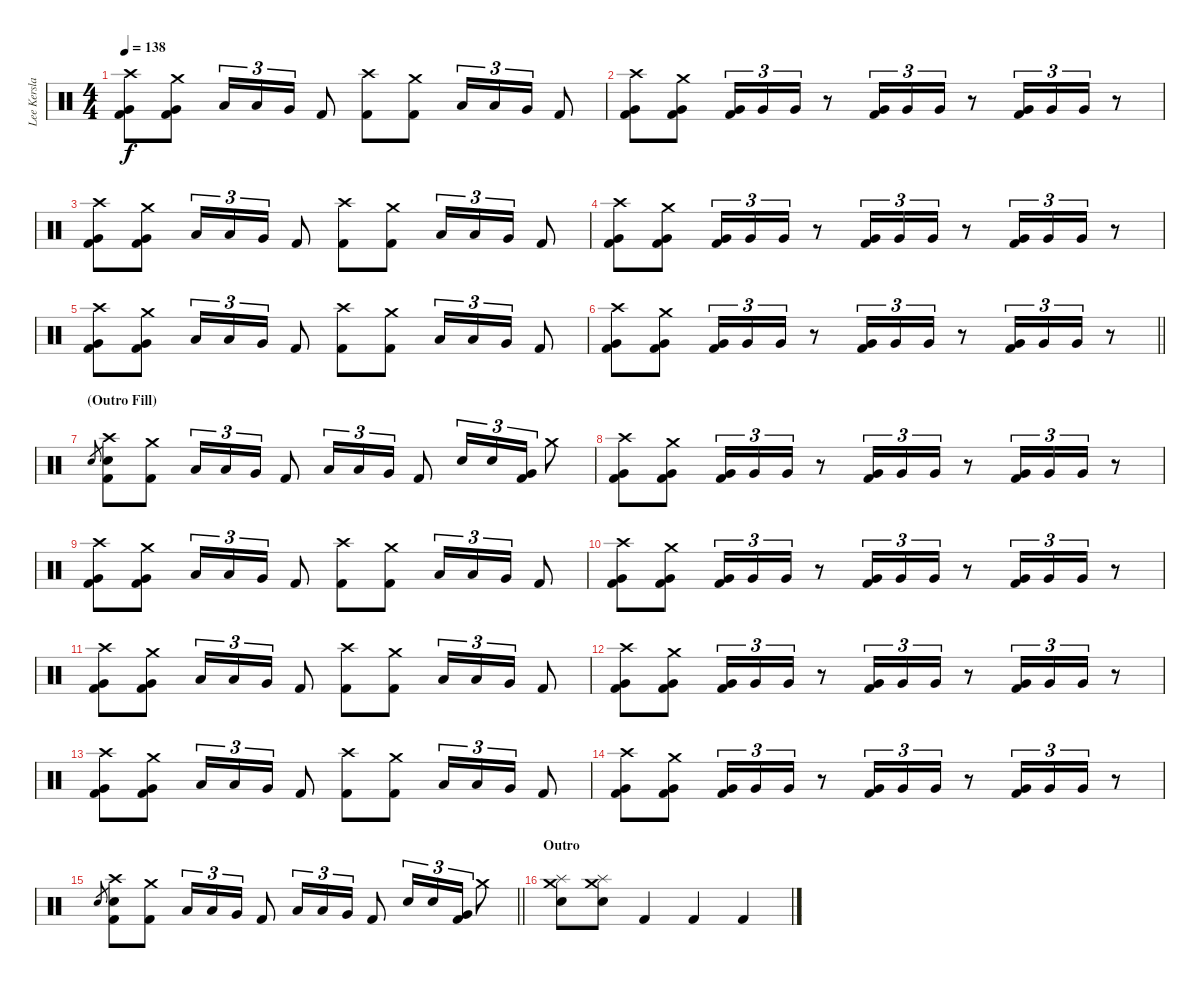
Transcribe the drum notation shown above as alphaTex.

\track ("Lee Kerslake" "Lee Kersla") {instrument percussion}
\staff {score}
\articulation defaults
\ts (4 4)
\tempo 138
\clef neutral
\ks c
("Very Low Tom (hit)" "Crash high (hit)" "Kick (hit) 2").8{dy f} ("Very Low Tom (hit)" "Crash medium (hit)" "Kick (hit) 2").8 "Low Tom (hit)".16{tu (3 2)} "Low Tom (hit)".16{tu (3 2)} "Very Low Tom (hit)".16{tu (3 2)} "Kick (hit) 2".8 ("Crash high (hit)" "Kick (hit) 2").8 ("Crash medium (hit)" "Kick (hit) 2").8 "Low Tom (hit)".16{tu (3 2)} "Low Tom (hit)".16{tu (3 2)} "Very Low Tom (hit)".16{tu (3 2)} "Kick (hit) 2".8 |
("Very Low Tom (hit)" "Crash high (hit)" "Kick (hit) 2").8 ("Very Low Tom (hit)" "Crash medium (hit)" "Kick (hit) 2").8 ("Very Low Tom (hit)" "Kick (hit) 2").16{tu (3 2)} "Very Low Tom (hit)".16{tu (3 2)} "Very Low Tom (hit)".16{tu (3 2)} r.8 ("Very Low Tom (hit)" "Kick (hit) 2").16{tu (3 2)} "Very Low Tom (hit)".16{tu (3 2)} "Very Low Tom (hit)".16{tu (3 2)} r.8 ("Very Low Tom (hit)" "Kick (hit) 2").16{tu (3 2)} "Very Low Tom (hit)".16{tu (3 2)} "Very Low Tom (hit)".16{tu (3 2)} r.8 |
("Very Low Tom (hit)" "Crash high (hit)" "Kick (hit) 2").8 ("Very Low Tom (hit)" "Crash medium (hit)" "Kick (hit) 2").8 "Low Tom (hit)".16{tu (3 2)} "Low Tom (hit)".16{tu (3 2)} "Very Low Tom (hit)".16{tu (3 2)} "Kick (hit) 2".8 ("Crash high (hit)" "Kick (hit) 2").8 ("Crash medium (hit)" "Kick (hit) 2").8 "Low Tom (hit)".16{tu (3 2)} "Low Tom (hit)".16{tu (3 2)} "Very Low Tom (hit)".16{tu (3 2)} "Kick (hit) 2".8 |
("Very Low Tom (hit)" "Crash high (hit)" "Kick (hit) 2").8 ("Very Low Tom (hit)" "Crash medium (hit)" "Kick (hit) 2").8 ("Very Low Tom (hit)" "Kick (hit) 2").16{tu (3 2)} "Very Low Tom (hit)".16{tu (3 2)} "Very Low Tom (hit)".16{tu (3 2)} r.8 ("Very Low Tom (hit)" "Kick (hit) 2").16{tu (3 2)} "Very Low Tom (hit)".16{tu (3 2)} "Very Low Tom (hit)".16{tu (3 2)} r.8 ("Very Low Tom (hit)" "Kick (hit) 2").16{tu (3 2)} "Very Low Tom (hit)".16{tu (3 2)} "Very Low Tom (hit)".16{tu (3 2)} r.8 |
("Very Low Tom (hit)" "Crash high (hit)" "Kick (hit) 2").8 ("Very Low Tom (hit)" "Crash medium (hit)" "Kick (hit) 2").8 "Low Tom (hit)".16{tu (3 2)} "Low Tom (hit)".16{tu (3 2)} "Very Low Tom (hit)".16{tu (3 2)} "Kick (hit) 2".8 ("Crash high (hit)" "Kick (hit) 2").8 ("Crash medium (hit)" "Kick (hit) 2").8 "Low Tom (hit)".16{tu (3 2)} "Low Tom (hit)".16{tu (3 2)} "Very Low Tom (hit)".16{tu (3 2)} "Kick (hit) 2".8 |
\barLineRight lightlight
("Very Low Tom (hit)" "Crash high (hit)" "Kick (hit) 2").8 ("Very Low Tom (hit)" "Crash medium (hit)" "Kick (hit) 2").8 ("Very Low Tom (hit)" "Kick (hit) 2").16{tu (3 2)} "Very Low Tom (hit)".16{tu (3 2)} "Very Low Tom (hit)".16{tu (3 2)} r.8 ("Very Low Tom (hit)" "Kick (hit) 2").16{tu (3 2)} "Very Low Tom (hit)".16{tu (3 2)} "Very Low Tom (hit)".16{tu (3 2)} r.8 ("Very Low Tom (hit)" "Kick (hit) 2").16{tu (3 2)} "Very Low Tom (hit)".16{tu (3 2)} "Very Low Tom (hit)".16{tu (3 2)} r.8 |
\section ("" "(Outro Fill)")
"Snare (hit) 2".8{gr} ("Snare (hit) 2" "Crash high (hit)" "Kick (hit) 2").8 ("Crash medium (hit)" "Kick (hit) 2").8 "Low Tom (hit)".16{tu (3 2)} "Low Tom (hit)".16{tu (3 2)} "Very Low Tom (hit)".16{tu (3 2)} "Kick (hit) 2".8 "Low Tom (hit)".16{tu (3 2)} "Low Tom (hit)".16{tu (3 2)} "Very Low Tom (hit)".16{tu (3 2)} "Kick (hit) 2".8 "Snare (hit) 2".16{tu (3 2)} "Snare (hit) 2".16{tu (3 2)} ("Very Low Tom (hit)" "Kick (hit) 2").16{tu (3 2)} "Crash medium (hit)".8 |
("Very Low Tom (hit)" "Crash high (hit)" "Kick (hit) 2").8 ("Very Low Tom (hit)" "Crash medium (hit)" "Kick (hit) 2").8 ("Very Low Tom (hit)" "Kick (hit) 2").16{tu (3 2)} "Very Low Tom (hit)".16{tu (3 2)} "Very Low Tom (hit)".16{tu (3 2)} r.8 ("Very Low Tom (hit)" "Kick (hit) 2").16{tu (3 2)} "Very Low Tom (hit)".16{tu (3 2)} "Very Low Tom (hit)".16{tu (3 2)} r.8 ("Very Low Tom (hit)" "Kick (hit) 2").16{tu (3 2)} "Very Low Tom (hit)".16{tu (3 2)} "Very Low Tom (hit)".16{tu (3 2)} r.8 |
("Very Low Tom (hit)" "Crash high (hit)" "Kick (hit) 2").8 ("Very Low Tom (hit)" "Crash medium (hit)" "Kick (hit) 2").8 "Low Tom (hit)".16{tu (3 2)} "Low Tom (hit)".16{tu (3 2)} "Very Low Tom (hit)".16{tu (3 2)} "Kick (hit) 2".8 ("Crash high (hit)" "Kick (hit) 2").8 ("Crash medium (hit)" "Kick (hit) 2").8 "Low Tom (hit)".16{tu (3 2)} "Low Tom (hit)".16{tu (3 2)} "Very Low Tom (hit)".16{tu (3 2)} "Kick (hit) 2".8 |
("Very Low Tom (hit)" "Crash high (hit)" "Kick (hit) 2").8 ("Very Low Tom (hit)" "Crash medium (hit)" "Kick (hit) 2").8 ("Very Low Tom (hit)" "Kick (hit) 2").16{tu (3 2)} "Very Low Tom (hit)".16{tu (3 2)} "Very Low Tom (hit)".16{tu (3 2)} r.8 ("Very Low Tom (hit)" "Kick (hit) 2").16{tu (3 2)} "Very Low Tom (hit)".16{tu (3 2)} "Very Low Tom (hit)".16{tu (3 2)} r.8 ("Very Low Tom (hit)" "Kick (hit) 2").16{tu (3 2)} "Very Low Tom (hit)".16{tu (3 2)} "Very Low Tom (hit)".16{tu (3 2)} r.8 |
("Very Low Tom (hit)" "Crash high (hit)" "Kick (hit) 2").8 ("Very Low Tom (hit)" "Crash medium (hit)" "Kick (hit) 2").8 "Low Tom (hit)".16{tu (3 2)} "Low Tom (hit)".16{tu (3 2)} "Very Low Tom (hit)".16{tu (3 2)} "Kick (hit) 2".8 ("Crash high (hit)" "Kick (hit) 2").8 ("Crash medium (hit)" "Kick (hit) 2").8 "Low Tom (hit)".16{tu (3 2)} "Low Tom (hit)".16{tu (3 2)} "Very Low Tom (hit)".16{tu (3 2)} "Kick (hit) 2".8 |
("Very Low Tom (hit)" "Crash high (hit)" "Kick (hit) 2").8 ("Very Low Tom (hit)" "Crash medium (hit)" "Kick (hit) 2").8 ("Very Low Tom (hit)" "Kick (hit) 2").16{tu (3 2)} "Very Low Tom (hit)".16{tu (3 2)} "Very Low Tom (hit)".16{tu (3 2)} r.8 ("Very Low Tom (hit)" "Kick (hit) 2").16{tu (3 2)} "Very Low Tom (hit)".16{tu (3 2)} "Very Low Tom (hit)".16{tu (3 2)} r.8 ("Very Low Tom (hit)" "Kick (hit) 2").16{tu (3 2)} "Very Low Tom (hit)".16{tu (3 2)} "Very Low Tom (hit)".16{tu (3 2)} r.8 |
("Very Low Tom (hit)" "Crash high (hit)" "Kick (hit) 2").8 ("Very Low Tom (hit)" "Crash medium (hit)" "Kick (hit) 2").8 "Low Tom (hit)".16{tu (3 2)} "Low Tom (hit)".16{tu (3 2)} "Very Low Tom (hit)".16{tu (3 2)} "Kick (hit) 2".8 ("Crash high (hit)" "Kick (hit) 2").8 ("Crash medium (hit)" "Kick (hit) 2").8 "Low Tom (hit)".16{tu (3 2)} "Low Tom (hit)".16{tu (3 2)} "Very Low Tom (hit)".16{tu (3 2)} "Kick (hit) 2".8 |
("Very Low Tom (hit)" "Crash high (hit)" "Kick (hit) 2").8 ("Very Low Tom (hit)" "Crash medium (hit)" "Kick (hit) 2").8 ("Very Low Tom (hit)" "Kick (hit) 2").16{tu (3 2)} "Very Low Tom (hit)".16{tu (3 2)} "Very Low Tom (hit)".16{tu (3 2)} r.8 ("Very Low Tom (hit)" "Kick (hit) 2").16{tu (3 2)} "Very Low Tom (hit)".16{tu (3 2)} "Very Low Tom (hit)".16{tu (3 2)} r.8 ("Very Low Tom (hit)" "Kick (hit) 2").16{tu (3 2)} "Very Low Tom (hit)".16{tu (3 2)} "Very Low Tom (hit)".16{tu (3 2)} r.8 |
\barLineRight lightlight "Snare (hit) 2".8{gr}
("Snare (hit) 2" "Crash high (hit)" "Kick (hit) 2").8 ("Crash medium (hit)" "Kick (hit) 2").8 "Low Tom (hit)".16{tu (3 2)} "Low Tom (hit)".16{tu (3 2)} "Very Low Tom (hit)".16{tu (3 2)} "Kick (hit) 2".8 "Low Tom (hit)".16{tu (3 2)} "Low Tom (hit)".16{tu (3 2)} "Very Low Tom (hit)".16{tu (3 2)} "Kick (hit) 2".8 "Snare (hit) 2".16{tu (3 2)} "Snare (hit) 2".16{tu (3 2)} ("Very Low Tom (hit)" "Kick (hit) 2").16{tu (3 2)} "Crash medium (hit)".8 |
\section ("" "Outro")
("Snare (hit) 2" "Crash medium (hit)" "Splash (hit)").8 ("Snare (hit) 2" "Crash medium (hit)" "Splash (hit)").8 "Kick (hit) 2".4 "Kick (hit) 2".4 "Kick (hit) 2".4
